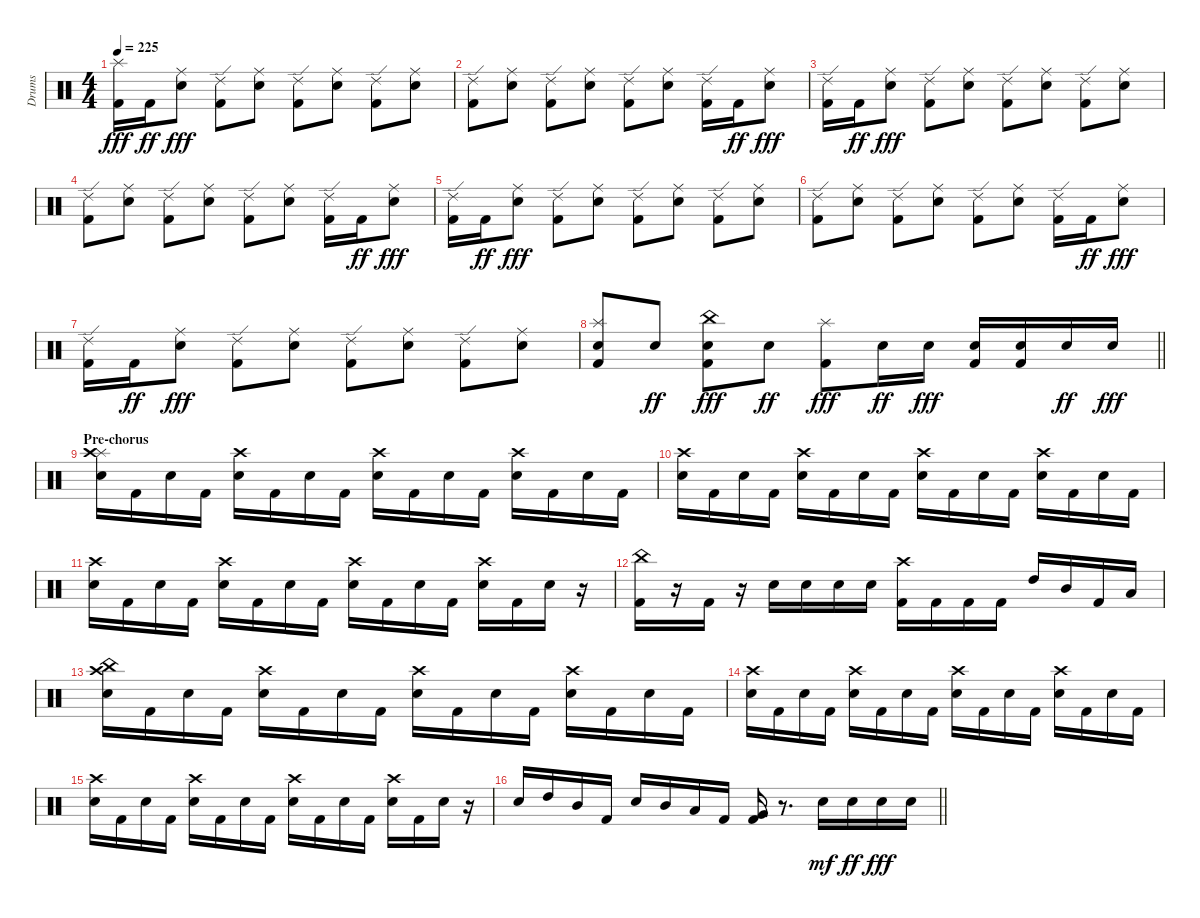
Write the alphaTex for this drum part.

\track ("Drums" "Drums") {instrument percussion}
\staff {score}
\articulation defaults
\ts (4 4)
\tempo 225
\clef neutral
\ks c
("Kick (hit) 2" "Splash (hit)").16{dy fff} "Kick (hit) 2".16{dy ff} ("Snare (hit) 2" "Ride (middle)").8{dy fff} ("Kick (hit) 2" "Ride (edge) 2").8 ("Snare (hit) 2" "Ride (middle)").8 ("Kick (hit) 2" "Ride (edge) 2").8 ("Snare (hit) 2" "Ride (middle)").8 ("Kick (hit) 2" "Ride (edge) 2").8 ("Snare (hit) 2" "Ride (middle)").8 |
("Kick (hit) 2" "Ride (edge) 2").8 ("Snare (hit) 2" "Ride (middle)").8 ("Kick (hit) 2" "Ride (edge) 2").8 ("Snare (hit) 2" "Ride (middle)").8 ("Kick (hit) 2" "Ride (edge) 2").8 ("Snare (hit) 2" "Ride (middle)").8 ("Kick (hit) 2" "Ride (edge) 2").16 "Kick (hit) 2".16{dy ff} ("Snare (hit) 2" "Ride (middle)").8{dy fff} |
("Kick (hit) 2" "Ride (edge) 2").16 "Kick (hit) 2".16{dy ff} ("Snare (hit) 2" "Ride (middle)").8{dy fff} ("Kick (hit) 2" "Ride (edge) 2").8 ("Snare (hit) 2" "Ride (middle)").8 ("Kick (hit) 2" "Ride (edge) 2").8 ("Snare (hit) 2" "Ride (middle)").8 ("Kick (hit) 2" "Ride (edge) 2").8 ("Snare (hit) 2" "Ride (middle)").8 |
("Kick (hit) 2" "Ride (edge) 2").8 ("Snare (hit) 2" "Ride (middle)").8 ("Kick (hit) 2" "Ride (edge) 2").8 ("Snare (hit) 2" "Ride (middle)").8 ("Kick (hit) 2" "Ride (edge) 2").8 ("Snare (hit) 2" "Ride (middle)").8 ("Kick (hit) 2" "Ride (edge) 2").16 "Kick (hit) 2".16{dy ff} ("Snare (hit) 2" "Ride (middle)").8{dy fff} |
("Kick (hit) 2" "Ride (edge) 2").16 "Kick (hit) 2".16{dy ff} ("Snare (hit) 2" "Ride (middle)").8{dy fff} ("Kick (hit) 2" "Ride (edge) 2").8 ("Snare (hit) 2" "Ride (middle)").8 ("Kick (hit) 2" "Ride (edge) 2").8 ("Snare (hit) 2" "Ride (middle)").8 ("Kick (hit) 2" "Ride (edge) 2").8 ("Snare (hit) 2" "Ride (middle)").8 |
("Kick (hit) 2" "Ride (edge) 2").8 ("Snare (hit) 2" "Ride (middle)").8 ("Kick (hit) 2" "Ride (edge) 2").8 ("Snare (hit) 2" "Ride (middle)").8 ("Kick (hit) 2" "Ride (edge) 2").8 ("Snare (hit) 2" "Ride (middle)").8 ("Kick (hit) 2" "Ride (edge) 2").16 "Kick (hit) 2".16{dy ff} ("Snare (hit) 2" "Ride (middle)").8{dy fff} |
("Kick (hit) 2" "Ride (edge) 2").16 "Kick (hit) 2".16{dy ff} ("Snare (hit) 2" "Ride (middle)").8{dy fff} ("Kick (hit) 2" "Ride (edge) 2").8 ("Snare (hit) 2" "Ride (middle)").8 ("Kick (hit) 2" "Ride (edge) 2").8 ("Snare (hit) 2" "Ride (middle)").8 ("Kick (hit) 2" "Ride (edge) 2").8 ("Snare (hit) 2" "Ride (middle)").8 |
\barLineRight lightlight
("Kick (hit) 2" "Snare (hit) 2" "Splash (hit)").8 "Snare (hit) 2".8{dy ff} ("Kick (hit) 2" "Snare (hit) 2" "China (hit)").8{dy fff} "Snare (hit) 2".8{dy ff} ("Kick (hit) 2" "Splash (hit)").8{dy fff} "Snare (hit) 2".16{dy ff} "Snare (hit) 2".16{dy fff} ("Kick (hit) 2" "Snare (hit) 2").16 ("Kick (hit) 2" "Snare (hit) 2").16 "Snare (hit) 2".16{dy ff} "Snare (hit) 2".16{dy fff} |
\section ("" "Pre-chorus")
("Snare (hit) 2" "Splash (hit)" "Crash high (hit)").16 "Kick (hit) 2".16 "Snare (hit) 2".16 "Kick (hit) 2".16 ("Snare (hit) 2" "Crash high (hit)").16 "Kick (hit) 2".16 "Snare (hit) 2".16 "Kick (hit) 2".16 ("Snare (hit) 2" "Crash high (hit)").16 "Kick (hit) 2".16 "Snare (hit) 2".16 "Kick (hit) 2".16 ("Snare (hit) 2" "Crash high (hit)").16 "Kick (hit) 2".16 "Snare (hit) 2".16 "Kick (hit) 2".16 |
("Snare (hit) 2" "Crash high (hit)").16 "Kick (hit) 2".16 "Snare (hit) 2".16 "Kick (hit) 2".16 ("Snare (hit) 2" "Crash high (hit)").16 "Kick (hit) 2".16 "Snare (hit) 2".16 "Kick (hit) 2".16 ("Snare (hit) 2" "Crash high (hit)").16 "Kick (hit) 2".16 "Snare (hit) 2".16 "Kick (hit) 2".16 ("Snare (hit) 2" "Crash high (hit)").16 "Kick (hit) 2".16 "Snare (hit) 2".16 "Kick (hit) 2".16 |
("Snare (hit) 2" "Crash high (hit)").16 "Kick (hit) 2".16 "Snare (hit) 2".16 "Kick (hit) 2".16 ("Snare (hit) 2" "Crash high (hit)").16 "Kick (hit) 2".16 "Snare (hit) 2".16 "Kick (hit) 2".16 ("Snare (hit) 2" "Crash high (hit)").16 "Kick (hit) 2".16 "Snare (hit) 2".16 "Kick (hit) 2".16 ("Snare (hit) 2" "Crash high (hit)").16 "Kick (hit) 2".16 "Snare (hit) 2".16 r.16 |
("Kick (hit) 2" "China (hit)").16 r.16 "Kick (hit) 2".16 r.16 "Snare (hit) 2".16 "Snare (hit) 2".16 "Snare (hit) 2".16 "Snare (hit) 2".16 ("Kick (hit) 2" "Crash high (hit)").16 "Kick (hit) 2".16 "Kick (hit) 2".16 "Kick (hit) 2".16 "High Tom (hit)".16 "Mid Tom (hit)".16 "Kick (hit) 2".16 "Low Tom (hit)".16 |
("Snare (hit) 2" "Crash high (hit)" "China (hit)").16 "Kick (hit) 2".16 "Snare (hit) 2".16 "Kick (hit) 2".16 ("Snare (hit) 2" "Crash high (hit)").16 "Kick (hit) 2".16 "Snare (hit) 2".16 "Kick (hit) 2".16 ("Snare (hit) 2" "Crash high (hit)").16 "Kick (hit) 2".16 "Snare (hit) 2".16 "Kick (hit) 2".16 ("Snare (hit) 2" "Crash high (hit)").16 "Kick (hit) 2".16 "Snare (hit) 2".16 "Kick (hit) 2".16 |
("Snare (hit) 2" "Crash high (hit)").16 "Kick (hit) 2".16 "Snare (hit) 2".16 "Kick (hit) 2".16 ("Snare (hit) 2" "Crash high (hit)").16 "Kick (hit) 2".16 "Snare (hit) 2".16 "Kick (hit) 2".16 ("Snare (hit) 2" "Crash high (hit)").16 "Kick (hit) 2".16 "Snare (hit) 2".16 "Kick (hit) 2".16 ("Snare (hit) 2" "Crash high (hit)").16 "Kick (hit) 2".16 "Snare (hit) 2".16 "Kick (hit) 2".16 |
("Snare (hit) 2" "Crash high (hit)").16 "Kick (hit) 2".16 "Snare (hit) 2".16 "Kick (hit) 2".16 ("Snare (hit) 2" "Crash high (hit)").16 "Kick (hit) 2".16 "Snare (hit) 2".16 "Kick (hit) 2".16 ("Snare (hit) 2" "Crash high (hit)").16 "Kick (hit) 2".16 "Snare (hit) 2".16 "Kick (hit) 2".16 ("Snare (hit) 2" "Crash high (hit)").16 "Kick (hit) 2".16 "Snare (hit) 2".16 r.16 |
\barLineRight lightlight "Snare (hit) 2".16 "High Tom (hit)".16 "Mid Tom (hit)".16 "Kick (hit) 2".16 "Snare (hit) 2".16 "Mid Tom (hit)".16 "Low Tom (hit)".16 "Kick (hit) 2".16
("Kick (hit) 2" "Very Low Tom (hit)").16 r.8{d} "Snare (hit) 2".16{dy mf} "Snare (hit) 2".16{dy ff} "Snare (hit) 2".16{dy fff} "Snare (hit) 2".16
